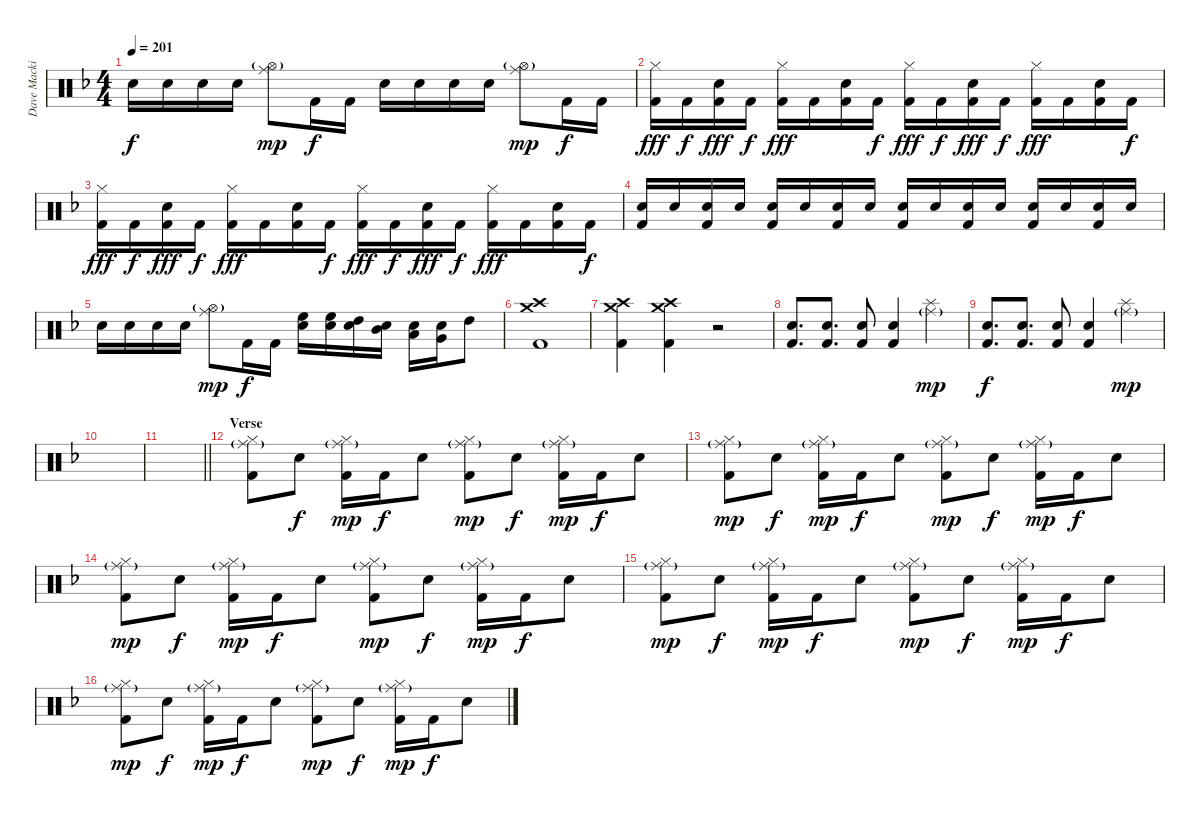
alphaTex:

\track ("Dave Mackintosh " "Dave Macki") {instrument percussion}
\staff {score}
\articulation defaults
\ts (4 4)
\tempo 201
\clef neutral
\ks dminor "Snare (hit) 2".16{dy f} "Snare (hit) 2".16 "Snare (hit) 2".16 "Snare (hit) 2".16
("Ride (middle)" "Hi-Hat (open)"{g}).8{dy mp} "Kick (hit) 2".16{dy f} "Kick (hit) 2".16 "Snare (hit) 2".16 "Snare (hit) 2".16 "Snare (hit) 2".16 "Snare (hit) 2".16 ("Ride (middle)" "Hi-Hat (open)"{g}).8{dy mp} "Kick (hit) 2".16{dy f} "Kick (hit) 2".16 |
("Hi-Hat (closed)" "Kick (hit) 2").16{dy fff} "Kick (hit) 2".16{dy f} ("Snare (hit) 2" "Kick (hit) 2").16{dy fff} "Kick (hit) 2".16{dy f} ("Hi-Hat (closed)" "Kick (hit) 2").16{dy fff} "Kick (hit) 2".16 ("Snare (hit) 2" "Kick (hit) 2").16 "Kick (hit) 2".16{dy f} ("Hi-Hat (closed)" "Kick (hit) 2").16{dy fff} "Kick (hit) 2".16{dy f} ("Snare (hit) 2" "Kick (hit) 2").16{dy fff} "Kick (hit) 2".16{dy f} ("Hi-Hat (closed)" "Kick (hit) 2").16{dy fff} "Kick (hit) 2".16 ("Snare (hit) 2" "Kick (hit) 2").16 "Kick (hit) 2".16{dy f} |
("Hi-Hat (closed)" "Kick (hit) 2").16{dy fff} "Kick (hit) 2".16{dy f} ("Snare (hit) 2" "Kick (hit) 2").16{dy fff} "Kick (hit) 2".16{dy f} ("Hi-Hat (closed)" "Kick (hit) 2").16{dy fff} "Kick (hit) 2".16 ("Snare (hit) 2" "Kick (hit) 2").16 "Kick (hit) 2".16{dy f} ("Hi-Hat (closed)" "Kick (hit) 2").16{dy fff} "Kick (hit) 2".16{dy f} ("Snare (hit) 2" "Kick (hit) 2").16{dy fff} "Kick (hit) 2".16{dy f} ("Hi-Hat (closed)" "Kick (hit) 2").16{dy fff} "Kick (hit) 2".16 ("Snare (hit) 2" "Kick (hit) 2").16 "Kick (hit) 2".16{dy f} |
("Snare (hit) 2" "Kick (hit) 2").16 "Snare (hit) 2".16 ("Snare (hit) 2" "Kick (hit) 2").16 "Snare (hit) 2".16 ("Snare (hit) 2" "Kick (hit) 2").16 "Snare (hit) 2".16 ("Snare (hit) 2" "Kick (hit) 2").16 "Snare (hit) 2".16 ("Snare (hit) 2" "Kick (hit) 2").16 "Snare (hit) 2".16 ("Snare (hit) 2" "Kick (hit) 2").16 "Snare (hit) 2".16 ("Snare (hit) 2" "Kick (hit) 2").16 "Snare (hit) 2".16 ("Snare (hit) 2" "Kick (hit) 2").16 "Snare (hit) 2".16 |
"Snare (hit) 2".16 "Snare (hit) 2".16 "Snare (hit) 2".16 "Snare (hit) 2".16 ("Ride (middle)" "Hi-Hat (open)"{g}).8{dy mp} "Kick (hit) 2".16{dy f} "Kick (hit) 2".16 ("High Floor Tom (hit)" "Snare (hit) 2").16 ("High Floor Tom (hit)" "Snare (hit) 2").16 ("High Tom (hit)" "Snare (hit) 2").16 ("Mid Tom (hit)" "Snare (hit) 2").16 ("Low Tom (hit)" "Snare (hit) 2").16 ("Very Low Tom (hit)" "Snare (hit) 2").16 "High Tom (hit)".8 |
("Crash medium (hit)" "Crash high (hit)" "Kick (hit) 2").1 |
("Crash medium (hit)" "Crash high (hit)" "Kick (hit) 2").4 ("Crash medium (hit)" "Crash high (hit)" "Kick (hit) 2").4 r.2 |
("Snare (hit) 2" "Kick (hit) 2").8{d} ("Snare (hit) 2" "Kick (hit) 2").8{d} ("Snare (hit) 2" "Kick (hit) 2").8 ("Snare (hit) 2" "Kick (hit) 2").4 ("Ride (middle)"{g} "Splash (hit)").4{dy mp} |
("Snare (hit) 2" "Kick (hit) 2").8{d dy f} ("Snare (hit) 2" "Kick (hit) 2").8{d} ("Snare (hit) 2" "Kick (hit) 2").8 ("Snare (hit) 2" "Kick (hit) 2").4 ("Ride (middle)"{g} "Splash (hit)").4{dy mp} |
|
\barLineRight lightlight
|
\section ("" "Verse")
("Hi-Hat (closed)" "Ride (middle)"{g} "Kick (hit) 2").8 "Snare (hit) 2".8{dy f} ("Hi-Hat (closed)" "Ride (middle)"{g} "Kick (hit) 2").16{dy mp} "Kick (hit) 2".16{dy f} "Snare (hit) 2".8 ("Hi-Hat (closed)" "Ride (middle)"{g} "Kick (hit) 2").8{dy mp} "Snare (hit) 2".8{dy f} ("Hi-Hat (closed)" "Ride (middle)"{g} "Kick (hit) 2").16{dy mp} "Kick (hit) 2".16{dy f} "Snare (hit) 2".8 |
("Hi-Hat (closed)" "Ride (middle)"{g} "Kick (hit) 2").8{dy mp} "Snare (hit) 2".8{dy f} ("Hi-Hat (closed)" "Ride (middle)"{g} "Kick (hit) 2").16{dy mp} "Kick (hit) 2".16{dy f} "Snare (hit) 2".8 ("Hi-Hat (closed)" "Ride (middle)"{g} "Kick (hit) 2").8{dy mp} "Snare (hit) 2".8{dy f} ("Hi-Hat (closed)" "Ride (middle)"{g} "Kick (hit) 2").16{dy mp} "Kick (hit) 2".16{dy f} "Snare (hit) 2".8 |
("Hi-Hat (closed)" "Ride (middle)"{g} "Kick (hit) 2").8{dy mp} "Snare (hit) 2".8{dy f} ("Hi-Hat (closed)" "Ride (middle)"{g} "Kick (hit) 2").16{dy mp} "Kick (hit) 2".16{dy f} "Snare (hit) 2".8 ("Hi-Hat (closed)" "Ride (middle)"{g} "Kick (hit) 2").8{dy mp} "Snare (hit) 2".8{dy f} ("Hi-Hat (closed)" "Ride (middle)"{g} "Kick (hit) 2").16{dy mp} "Kick (hit) 2".16{dy f} "Snare (hit) 2".8 |
("Hi-Hat (closed)" "Ride (middle)"{g} "Kick (hit) 2").8{dy mp} "Snare (hit) 2".8{dy f} ("Hi-Hat (closed)" "Ride (middle)"{g} "Kick (hit) 2").16{dy mp} "Kick (hit) 2".16{dy f} "Snare (hit) 2".8 ("Hi-Hat (closed)" "Ride (middle)"{g} "Kick (hit) 2").8{dy mp} "Snare (hit) 2".8{dy f} ("Hi-Hat (closed)" "Ride (middle)"{g} "Kick (hit) 2").16{dy mp} "Kick (hit) 2".16{dy f} "Snare (hit) 2".8 |
("Hi-Hat (closed)" "Ride (middle)"{g} "Kick (hit) 2").8{dy mp} "Snare (hit) 2".8{dy f} ("Hi-Hat (closed)" "Ride (middle)"{g} "Kick (hit) 2").16{dy mp} "Kick (hit) 2".16{dy f} "Snare (hit) 2".8 ("Hi-Hat (closed)" "Ride (middle)"{g} "Kick (hit) 2").8{dy mp} "Snare (hit) 2".8{dy f} ("Hi-Hat (closed)" "Ride (middle)"{g} "Kick (hit) 2").16{dy mp} "Kick (hit) 2".16{dy f} "Snare (hit) 2".8
